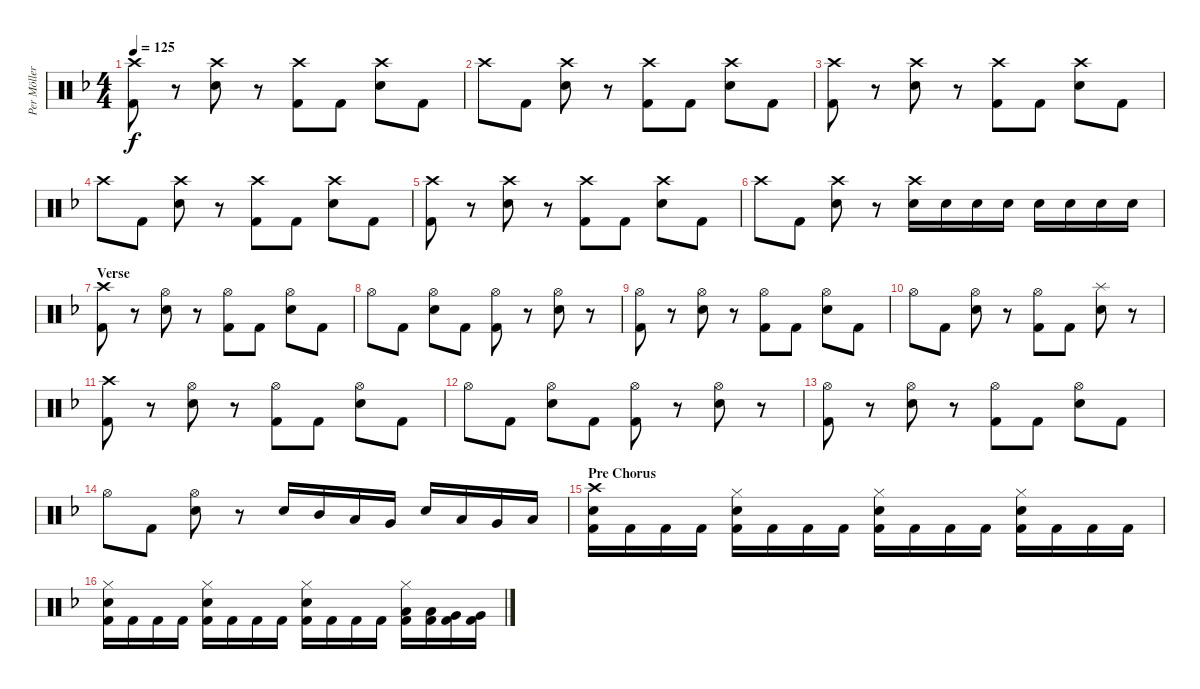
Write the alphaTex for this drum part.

\track ("Per Möller Jensen" "Per Möller") {instrument percussion}
\staff {score}
\articulation defaults
\ts (4 4)
\tempo 125
\clef neutral
\ks dminor
("Crash high (hit)" "Kick (hit) 2").8{dy f} r.8 ("Crash high (hit)" "Electric Snare (hit)").8 r.8 ("Crash high (hit)" "Kick (hit) 2").8 "Kick (hit) 2".8 ("Crash high (hit)" "Electric Snare (hit)").8 "Kick (hit) 2".8 |
"Crash high (hit)".8 "Kick (hit) 2".8 ("Crash high (hit)" "Electric Snare (hit)").8 r.8 ("Crash high (hit)" "Kick (hit) 2").8 "Kick (hit) 2".8 ("Crash high (hit)" "Electric Snare (hit)").8 "Kick (hit) 2".8 |
("Crash high (hit)" "Kick (hit) 2").8 r.8 ("Crash high (hit)" "Electric Snare (hit)").8 r.8 ("Crash high (hit)" "Kick (hit) 2").8 "Kick (hit) 2".8 ("Crash high (hit)" "Electric Snare (hit)").8 "Kick (hit) 2".8 |
"Crash high (hit)".8 "Kick (hit) 2".8 ("Crash high (hit)" "Electric Snare (hit)").8 r.8 ("Crash high (hit)" "Kick (hit) 2").8 "Kick (hit) 2".8 ("Crash high (hit)" "Electric Snare (hit)").8 "Kick (hit) 2".8 |
("Crash high (hit)" "Kick (hit) 2").8 r.8 ("Crash high (hit)" "Electric Snare (hit)").8 r.8 ("Crash high (hit)" "Kick (hit) 2").8 "Kick (hit) 2".8 ("Crash high (hit)" "Electric Snare (hit)").8 "Kick (hit) 2".8 |
"Crash high (hit)".8 "Kick (hit) 2".8 ("Crash high (hit)" "Electric Snare (hit)").8 r.8 ("Crash high (hit)" "Electric Snare (hit)").16 "Electric Snare (hit)".16 "Electric Snare (hit)".16 "Electric Snare (hit)".16 "Electric Snare (hit)".16 "Electric Snare (hit)".16 "Electric Snare (hit)".16 "Electric Snare (hit)".16 |
\section ("" "Verse")
("Crash high (hit)" "Kick (hit) 2").8 r.8 ("Hi-Hat (open)" "Electric Snare (hit)").8 r.8 ("Hi-Hat (open)" "Kick (hit) 2").8 "Kick (hit) 2".8 ("Hi-Hat (open)" "Electric Snare (hit)").8 "Kick (hit) 2".8 |
"Hi-Hat (open)".8 "Kick (hit) 2".8 ("Hi-Hat (open)" "Electric Snare (hit)").8 "Kick (hit) 2".8 ("Hi-Hat (open)" "Kick (hit) 2").8 r.8 ("Hi-Hat (open)" "Electric Snare (hit)").8 r.8 |
("Hi-Hat (open)" "Kick (hit) 2").8 r.8 ("Hi-Hat (open)" "Electric Snare (hit)").8 r.8 ("Hi-Hat (open)" "Kick (hit) 2").8 "Kick (hit) 2".8 ("Hi-Hat (open)" "Electric Snare (hit)").8 "Kick (hit) 2".8 |
"Hi-Hat (open)".8 "Kick (hit) 2".8 ("Hi-Hat (open)" "Electric Snare (hit)").8 r.8 ("Hi-Hat (open)" "Kick (hit) 2").8 "Kick (hit) 2".8 ("Splash (hit)" "Electric Snare (hit)").8 r.8 |
("Crash high (hit)" "Kick (hit) 2").8 r.8 ("Hi-Hat (open)" "Electric Snare (hit)").8 r.8 ("Hi-Hat (open)" "Kick (hit) 2").8 "Kick (hit) 2".8 ("Hi-Hat (open)" "Electric Snare (hit)").8 "Kick (hit) 2".8 |
"Hi-Hat (open)".8 "Kick (hit) 2".8 ("Hi-Hat (open)" "Electric Snare (hit)").8 "Kick (hit) 2".8 ("Hi-Hat (open)" "Kick (hit) 2").8 r.8 ("Hi-Hat (open)" "Electric Snare (hit)").8 r.8 |
("Hi-Hat (open)" "Kick (hit) 2").8 r.8 ("Hi-Hat (open)" "Electric Snare (hit)").8 r.8 ("Hi-Hat (open)" "Kick (hit) 2").8 "Kick (hit) 2".8 ("Hi-Hat (open)" "Electric Snare (hit)").8 "Kick (hit) 2".8 |
"Hi-Hat (open)".8 "Kick (hit) 2".8 ("Hi-Hat (open)" "Electric Snare (hit)").8 r.8 "Electric Snare (hit)".16 "Mid Tom (hit)".16 "Low Tom (hit)".16 "Very Low Tom (hit)".16 "Electric Snare (hit)".16 "Low Tom (hit)".16 "Very Low Tom (hit)".16 "Low Floor Tom (hit)".16 |
\section ("" "Pre Chorus")
("Crash high (hit)" "Electric Snare (hit)" "Kick (hit) 2").16 "Kick (hit) 2".16 "Kick (hit) 2".16 "Kick (hit) 2".16 ("Hi-Hat (closed)" "Electric Snare (hit)" "Kick (hit) 2").16 "Kick (hit) 2".16 "Kick (hit) 2".16 "Kick (hit) 2".16 ("Hi-Hat (closed)" "Electric Snare (hit)" "Kick (hit) 2").16 "Kick (hit) 2".16 "Kick (hit) 2".16 "Kick (hit) 2".16 ("Hi-Hat (closed)" "Electric Snare (hit)" "Kick (hit) 2").16 "Kick (hit) 2".16 "Kick (hit) 2".16 "Kick (hit) 2".16 |
("Hi-Hat (closed)" "Electric Snare (hit)" "Kick (hit) 2").16 "Kick (hit) 2".16 "Kick (hit) 2".16 "Kick (hit) 2".16 ("Hi-Hat (closed)" "Electric Snare (hit)" "Kick (hit) 2").16 "Kick (hit) 2".16 "Kick (hit) 2".16 "Kick (hit) 2".16 ("Hi-Hat (closed)" "Electric Snare (hit)" "Kick (hit) 2").16 "Kick (hit) 2".16 "Kick (hit) 2".16 "Kick (hit) 2".16 ("Hi-Hat (closed)" "Low Tom (hit)" "Kick (hit) 2").16 ("Low Tom (hit)" "Kick (hit) 2").16 ("Very Low Tom (hit)" "Kick (hit) 2").16 ("Very Low Tom (hit)" "Kick (hit) 2").16
